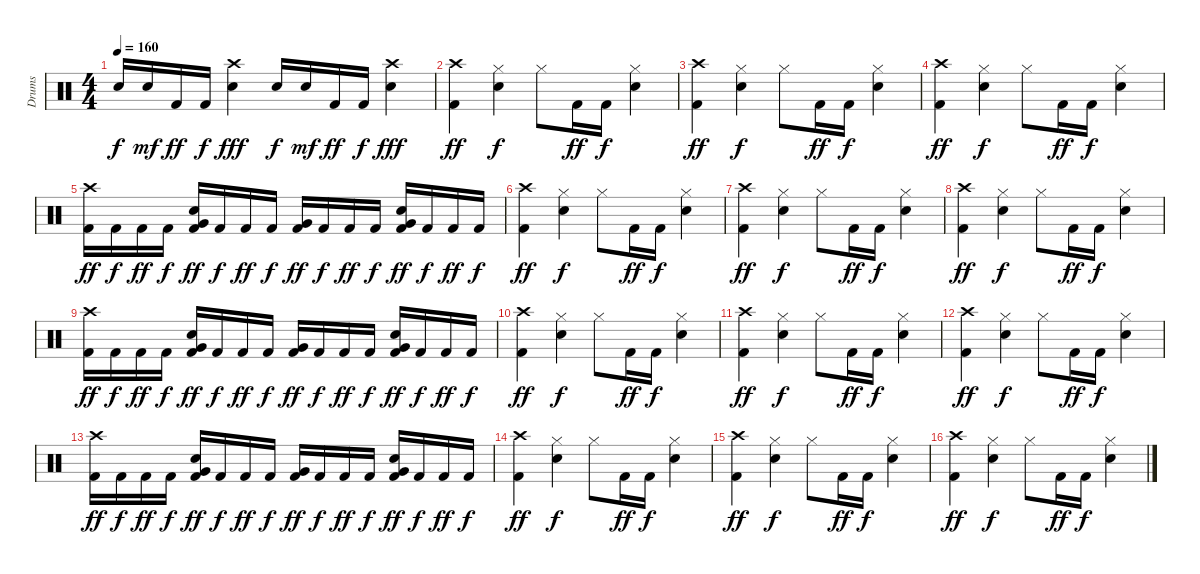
\track ("Drums" "Drums") {instrument percussion}
\staff {score}
\articulation defaults
\ts (4 4)
\tempo 160
\clef neutral
\ks c "Snare (hit) 2".16{dy f} "Snare (hit) 2".16{dy mf} "Kick (hit) 2".16{dy ff} "Kick (hit) 2".16{dy f}
("Crash high (hit)" "Snare (hit) 2").4{dy fff} "Snare (hit) 2".16{dy f} "Snare (hit) 2".16{dy mf} "Kick (hit) 2".16{dy ff} "Kick (hit) 2".16{dy f} ("Crash high (hit)" "Snare (hit) 2").4{dy fff} |
("Crash high (hit)" "Kick (hit) 2").4{dy ff} ("Hi-Hat (closed)" "Snare (hit) 2").4{dy f} "Hi-Hat (closed)".8 "Kick (hit) 2".16{dy ff} "Kick (hit) 2".16{dy f} ("Hi-Hat (closed)" "Snare (hit) 2").4 |
("Crash high (hit)" "Kick (hit) 2").4{dy ff} ("Hi-Hat (closed)" "Snare (hit) 2").4{dy f} "Hi-Hat (closed)".8 "Kick (hit) 2".16{dy ff} "Kick (hit) 2".16{dy f} ("Hi-Hat (closed)" "Snare (hit) 2").4 |
("Crash high (hit)" "Kick (hit) 2").4{dy ff} ("Hi-Hat (closed)" "Snare (hit) 2").4{dy f} "Hi-Hat (closed)".8 "Kick (hit) 2".16{dy ff} "Kick (hit) 2".16{dy f} ("Hi-Hat (closed)" "Snare (hit) 2").4 |
("Crash high (hit)" "Kick (hit) 2").16{dy ff} "Kick (hit) 2".16{dy f} "Kick (hit) 2".16{dy ff} "Kick (hit) 2".16{dy f} ("Very Low Tom (hit)" "Snare (hit) 2" "Kick (hit) 2").16{dy ff} "Kick (hit) 2".16{dy f} "Kick (hit) 2".16{dy ff} "Kick (hit) 2".16{dy f} ("Very Low Tom (hit)" "Kick (hit) 2").16{dy ff} "Kick (hit) 2".16{dy f} "Kick (hit) 2".16{dy ff} "Kick (hit) 2".16{dy f} ("Very Low Tom (hit)" "Snare (hit) 2" "Kick (hit) 2").16{dy ff} "Kick (hit) 2".16{dy f} "Kick (hit) 2".16{dy ff} "Kick (hit) 2".16{dy f} |
("Crash high (hit)" "Kick (hit) 2").4{dy ff} ("Hi-Hat (closed)" "Snare (hit) 2").4{dy f} "Hi-Hat (closed)".8 "Kick (hit) 2".16{dy ff} "Kick (hit) 2".16{dy f} ("Hi-Hat (closed)" "Snare (hit) 2").4 |
("Crash high (hit)" "Kick (hit) 2").4{dy ff} ("Hi-Hat (closed)" "Snare (hit) 2").4{dy f} "Hi-Hat (closed)".8 "Kick (hit) 2".16{dy ff} "Kick (hit) 2".16{dy f} ("Hi-Hat (closed)" "Snare (hit) 2").4 |
("Crash high (hit)" "Kick (hit) 2").4{dy ff} ("Hi-Hat (closed)" "Snare (hit) 2").4{dy f} "Hi-Hat (closed)".8 "Kick (hit) 2".16{dy ff} "Kick (hit) 2".16{dy f} ("Hi-Hat (closed)" "Snare (hit) 2").4 |
("Crash high (hit)" "Kick (hit) 2").16{dy ff} "Kick (hit) 2".16{dy f} "Kick (hit) 2".16{dy ff} "Kick (hit) 2".16{dy f} ("Very Low Tom (hit)" "Snare (hit) 2" "Kick (hit) 2").16{dy ff} "Kick (hit) 2".16{dy f} "Kick (hit) 2".16{dy ff} "Kick (hit) 2".16{dy f} ("Very Low Tom (hit)" "Kick (hit) 2").16{dy ff} "Kick (hit) 2".16{dy f} "Kick (hit) 2".16{dy ff} "Kick (hit) 2".16{dy f} ("Very Low Tom (hit)" "Snare (hit) 2" "Kick (hit) 2").16{dy ff} "Kick (hit) 2".16{dy f} "Kick (hit) 2".16{dy ff} "Kick (hit) 2".16{dy f} |
("Crash high (hit)" "Kick (hit) 2").4{dy ff} ("Hi-Hat (closed)" "Snare (hit) 2").4{dy f} "Hi-Hat (closed)".8 "Kick (hit) 2".16{dy ff} "Kick (hit) 2".16{dy f} ("Hi-Hat (closed)" "Snare (hit) 2").4 |
("Crash high (hit)" "Kick (hit) 2").4{dy ff} ("Hi-Hat (closed)" "Snare (hit) 2").4{dy f} "Hi-Hat (closed)".8 "Kick (hit) 2".16{dy ff} "Kick (hit) 2".16{dy f} ("Hi-Hat (closed)" "Snare (hit) 2").4 |
("Crash high (hit)" "Kick (hit) 2").4{dy ff} ("Hi-Hat (closed)" "Snare (hit) 2").4{dy f} "Hi-Hat (closed)".8 "Kick (hit) 2".16{dy ff} "Kick (hit) 2".16{dy f} ("Hi-Hat (closed)" "Snare (hit) 2").4 |
("Crash high (hit)" "Kick (hit) 2").16{dy ff} "Kick (hit) 2".16{dy f} "Kick (hit) 2".16{dy ff} "Kick (hit) 2".16{dy f} ("Very Low Tom (hit)" "Snare (hit) 2" "Kick (hit) 2").16{dy ff} "Kick (hit) 2".16{dy f} "Kick (hit) 2".16{dy ff} "Kick (hit) 2".16{dy f} ("Very Low Tom (hit)" "Kick (hit) 2").16{dy ff} "Kick (hit) 2".16{dy f} "Kick (hit) 2".16{dy ff} "Kick (hit) 2".16{dy f} ("Very Low Tom (hit)" "Snare (hit) 2" "Kick (hit) 2").16{dy ff} "Kick (hit) 2".16{dy f} "Kick (hit) 2".16{dy ff} "Kick (hit) 2".16{dy f} |
("Crash high (hit)" "Kick (hit) 2").4{dy ff} ("Hi-Hat (closed)" "Snare (hit) 2").4{dy f} "Hi-Hat (closed)".8 "Kick (hit) 2".16{dy ff} "Kick (hit) 2".16{dy f} ("Hi-Hat (closed)" "Snare (hit) 2").4 |
("Crash high (hit)" "Kick (hit) 2").4{dy ff} ("Hi-Hat (closed)" "Snare (hit) 2").4{dy f} "Hi-Hat (closed)".8 "Kick (hit) 2".16{dy ff} "Kick (hit) 2".16{dy f} ("Hi-Hat (closed)" "Snare (hit) 2").4 |
("Crash high (hit)" "Kick (hit) 2").4{dy ff} ("Hi-Hat (closed)" "Snare (hit) 2").4{dy f} "Hi-Hat (closed)".8 "Kick (hit) 2".16{dy ff} "Kick (hit) 2".16{dy f} ("Hi-Hat (closed)" "Snare (hit) 2").4
